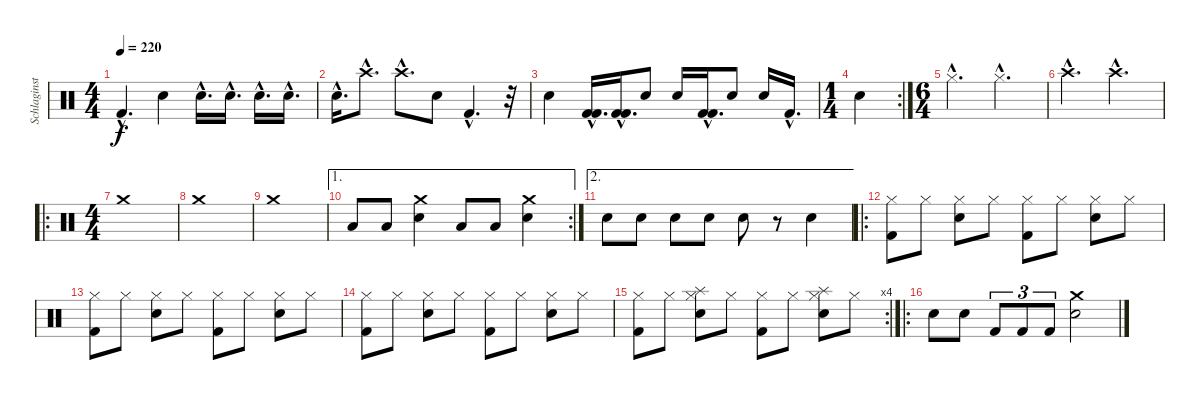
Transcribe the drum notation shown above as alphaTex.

\track ("Schlaginstrumente - Auswahl" "Schlaginst") {instrument percussion}
\staff {score}
\articulation defaults
\ts (4 4)
\tempo 220
\clef neutral
\ks c "Kick (hit) 2"{hac}.4{d dy f} "Snare (hit) 2".4 "Snare (hit) 2"{hac}.16{d} "Snare (hit) 2"{hac}.16{d} "Snare (hit) 2"{hac}.16{d} "Snare (hit) 2"{hac}.16{d}
|
"Snare (hit) 2"{hac}.16{d} "Crash high (hit)"{hac}.8{d} "Crash high (hit)"{hac}.8{d} "Snare (hit) 2".8 "Kick (hit) 2"{hac}.4{d} r.32 |
"Snare (hit) 2".4 ("Kick (hit) 2"{hac} "Kick (hit) 2"{hac}).16{d} ("Kick (hit) 2"{hac} "Kick (hit) 2"{hac}).16{d} "Snare (hit) 2".8 "Snare (hit) 2".16 ("Kick (hit) 2"{hac} "Kick (hit) 2"{hac}).16{d} "Snare (hit) 2".8 "Snare (hit) 2".16 "Kick (hit) 2"{hac}.16{d} |
\rc 2
\ts (1 4)
"Snare (hit) 2".4 |
\ts (6 4)
"Hi-Hat (closed)"{hac}.2{d} "Hi-Hat (closed)"{hac}.2{d} |
"Crash high (hit)"{hac}.2{d} "Crash high (hit)"{hac}.2{d} |
\ro
\ts (4 4)
"Crash medium (hit)".1 |
"Crash medium (hit)".1 |
"Crash medium (hit)".1 |
\ae 1
\rc 2 "Low Tom (hit)".8 "Low Tom (hit)".8
("Crash medium (hit)" "Snare (hit) 2").4 "Low Tom (hit)".8 "Low Tom (hit)".8 ("Crash medium (hit)" "Snare (hit) 2").4 |
\ae 2 "Snare (hit) 2".8 "Snare (hit) 2".8 "Snare (hit) 2".8 "Snare (hit) 2".8 "Snare (hit) 2".8
r.8 "Snare (hit) 2".4 |
\ro
("Hi-Hat (closed)" "Kick (hit) 2").8 "Hi-Hat (closed)".8 ("Hi-Hat (closed)" "Snare (hit) 2").8 "Hi-Hat (closed)".8 ("Hi-Hat (closed)" "Kick (hit) 2").8 "Hi-Hat (closed)".8 ("Hi-Hat (closed)" "Snare (hit) 2").8 "Hi-Hat (closed)".8 |
("Hi-Hat (closed)" "Kick (hit) 2").8 "Hi-Hat (closed)".8 ("Hi-Hat (closed)" "Snare (hit) 2").8 "Hi-Hat (closed)".8 ("Hi-Hat (closed)" "Kick (hit) 2").8 "Hi-Hat (closed)".8 ("Hi-Hat (closed)" "Snare (hit) 2").8 "Hi-Hat (closed)".8 |
("Hi-Hat (closed)" "Kick (hit) 2").8 "Hi-Hat (closed)".8 ("Hi-Hat (closed)" "Snare (hit) 2").8 "Hi-Hat (closed)".8 ("Hi-Hat (closed)" "Kick (hit) 2").8 "Hi-Hat (closed)".8 ("Hi-Hat (closed)" "Snare (hit) 2").8 "Hi-Hat (closed)".8 |
\rc 4
("Hi-Hat (closed)" "Kick (hit) 2").8 "Hi-Hat (closed)".8 ("Hi-Hat (closed)" "Snare (hit) 2" "Splash (hit)").8 "Hi-Hat (closed)".8 ("Hi-Hat (closed)" "Kick (hit) 2").8 "Hi-Hat (closed)".8 ("Hi-Hat (closed)" "Snare (hit) 2" "Splash (hit)").8 "Hi-Hat (closed)".8 |
\ro "Snare (hit) 2".8 "Snare (hit) 2".8 "Kick (hit) 2".8{tu (3 2)} "Kick (hit) 2".8{tu (3 2)} "Kick (hit) 2".8{tu (3 2)}
("Crash medium (hit)" "Snare (hit) 2").2
